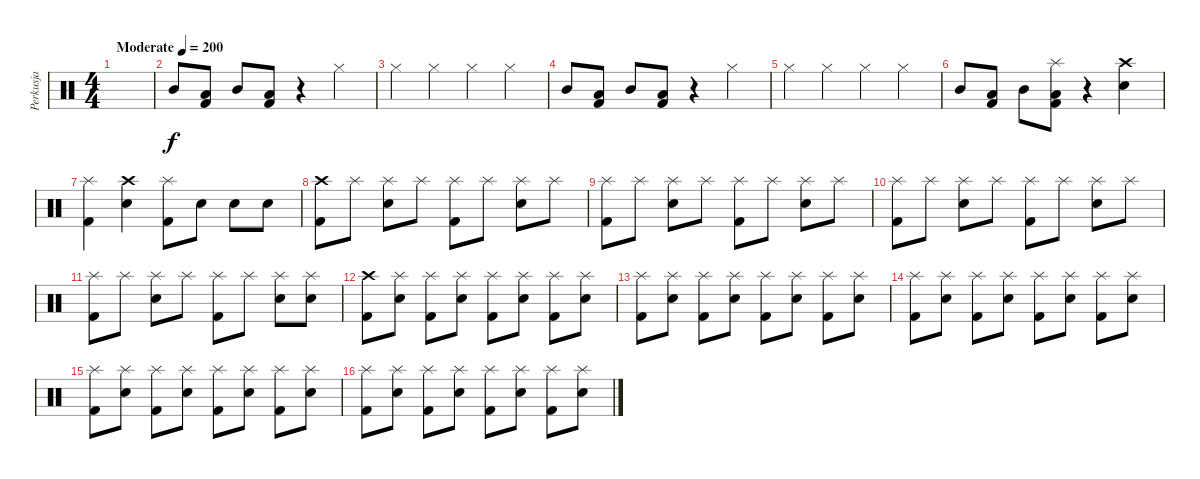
\track ("Perkusja" "Perkusja") {instrument percussion}
\staff {score}
\articulation defaults
\ts (4 4)
\tempo (200 "Moderate")
\clef neutral
\ks c
|
"Mid Tom (hit)".8 ("Low Tom (hit)" "Kick (hit) 2").8 "Mid Tom (hit)".8 ("Low Tom (hit)" "Kick (hit) 2").8 r.4 "Hi-Hat (closed)".4 |
"Hi-Hat (closed)".4 "Hi-Hat (closed)".4 "Hi-Hat (closed)".4 "Hi-Hat (closed)".4 |
"Mid Tom (hit)".8 ("Low Tom (hit)" "Kick (hit) 2").8 "Mid Tom (hit)".8 ("Low Tom (hit)" "Kick (hit) 2").8 r.4 "Hi-Hat (closed)".4 |
"Hi-Hat (closed)".4 "Hi-Hat (closed)".4 "Hi-Hat (closed)".4 "Hi-Hat (closed)".4 |
"Mid Tom (hit)".8 ("Low Tom (hit)" "Kick (hit) 2").8 "Mid Tom (hit)".8 ("Splash (hit)" "Low Tom (hit)" "Kick (hit) 2").8 r.4 ("Crash high (hit)" "Electric Snare (hit)").4 |
("Splash (hit)" "Kick (hit) 2").4 ("Crash high (hit)" "Electric Snare (hit)").4 ("Splash (hit)" "Kick (hit) 2").8 "Electric Snare (hit)".8 "Electric Snare (hit)".8 "Electric Snare (hit)".8 |
("Crash high (hit)" "Kick (hit) 2").8 "Splash (hit)".8 ("Splash (hit)" "Electric Snare (hit)").8 "Splash (hit)".8 ("Splash (hit)" "Kick (hit) 2").8 "Splash (hit)".8 ("Splash (hit)" "Electric Snare (hit)").8 "Splash (hit)".8 |
("Splash (hit)" "Kick (hit) 2").8 "Splash (hit)".8 ("Splash (hit)" "Electric Snare (hit)").8 "Splash (hit)".8 ("Splash (hit)" "Kick (hit) 2").8 "Splash (hit)".8 ("Splash (hit)" "Electric Snare (hit)").8 "Splash (hit)".8 |
("Splash (hit)" "Kick (hit) 2").8 "Splash (hit)".8 ("Splash (hit)" "Electric Snare (hit)").8 "Splash (hit)".8 ("Splash (hit)" "Kick (hit) 2").8 "Splash (hit)".8 ("Splash (hit)" "Electric Snare (hit)").8 "Splash (hit)".8 |
("Splash (hit)" "Kick (hit) 2").8 "Splash (hit)".8 ("Splash (hit)" "Electric Snare (hit)").8 "Splash (hit)".8 ("Splash (hit)" "Kick (hit) 2").8 "Splash (hit)".8 ("Splash (hit)" "Electric Snare (hit)").8 ("Splash (hit)" "Electric Snare (hit)").8 |
("Crash high (hit)" "Kick (hit) 2").8 ("Splash (hit)" "Electric Snare (hit)").8 ("Splash (hit)" "Kick (hit) 2").8 ("Splash (hit)" "Electric Snare (hit)").8 ("Splash (hit)" "Kick (hit) 2").8 ("Splash (hit)" "Electric Snare (hit)").8 ("Splash (hit)" "Kick (hit) 2").8 ("Splash (hit)" "Electric Snare (hit)").8 |
("Splash (hit)" "Kick (hit) 2").8 ("Splash (hit)" "Electric Snare (hit)").8 ("Splash (hit)" "Kick (hit) 2").8 ("Splash (hit)" "Electric Snare (hit)").8 ("Splash (hit)" "Kick (hit) 2").8 ("Splash (hit)" "Electric Snare (hit)").8 ("Splash (hit)" "Kick (hit) 2").8 ("Splash (hit)" "Electric Snare (hit)").8 |
("Splash (hit)" "Kick (hit) 2").8 ("Splash (hit)" "Electric Snare (hit)").8 ("Splash (hit)" "Kick (hit) 2").8 ("Splash (hit)" "Electric Snare (hit)").8 ("Splash (hit)" "Kick (hit) 2").8 ("Splash (hit)" "Electric Snare (hit)").8 ("Splash (hit)" "Kick (hit) 2").8 ("Splash (hit)" "Electric Snare (hit)").8 |
("Splash (hit)" "Kick (hit) 2").8 ("Splash (hit)" "Electric Snare (hit)").8 ("Splash (hit)" "Kick (hit) 2").8 ("Splash (hit)" "Electric Snare (hit)").8 ("Splash (hit)" "Kick (hit) 2").8 ("Splash (hit)" "Electric Snare (hit)").8 ("Splash (hit)" "Kick (hit) 2").8 ("Splash (hit)" "Electric Snare (hit)").8 |
("Splash (hit)" "Kick (hit) 2").8 ("Splash (hit)" "Electric Snare (hit)").8 ("Splash (hit)" "Kick (hit) 2").8 ("Splash (hit)" "Electric Snare (hit)").8 ("Splash (hit)" "Kick (hit) 2").8 ("Splash (hit)" "Electric Snare (hit)").8 ("Splash (hit)" "Kick (hit) 2").8 ("Splash (hit)" "Electric Snare (hit)").8
